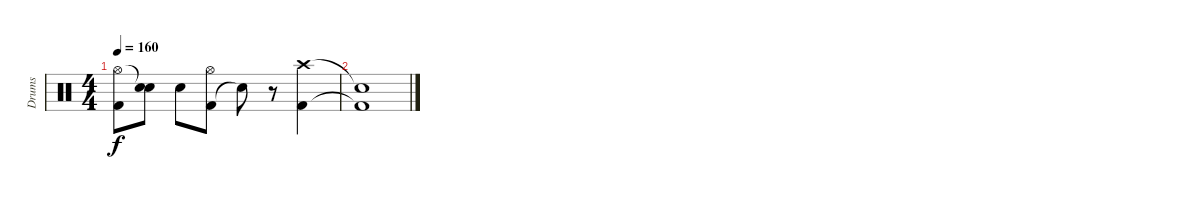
\track ("Drums" "Drums") {instrument percussion}
\staff {score}
\articulation defaults
\ts (4 4)
\tempo 160
\clef neutral
\ks c
("Kick (hit) 2" "Hi-Hat (open)").8{dy f} ("Snare (hit) 2" "Snare (hit)"{t}).8 "Snare (hit) 2".8 ("Kick (hit) 2" "Hi-Hat (open)").8 "Snare (hit)"{t}.8 r.8 ("Kick (hit) 2" "Crash high (hit)").4 |
("Kick (hit) 2"{t} "Snare (hit)"{t}).1
